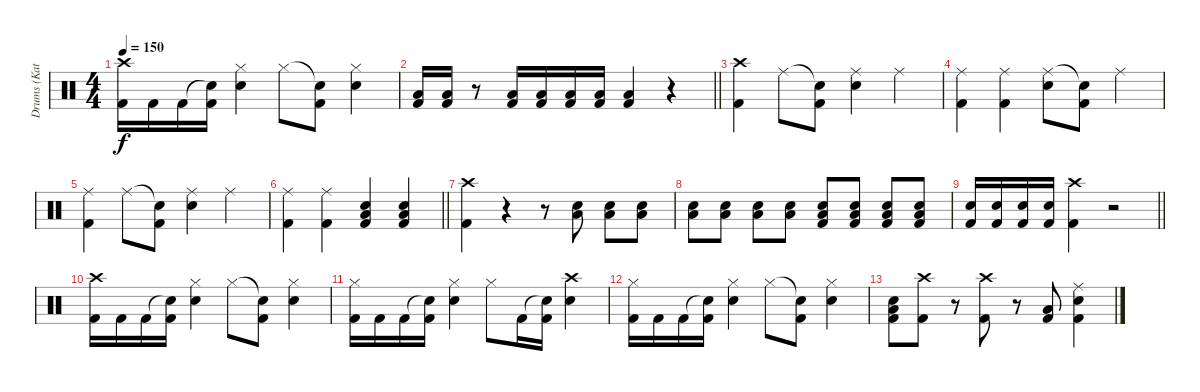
\track ("Drums (Katsuji)" "Drums (Kat") {instrument percussion}
\staff {score}
\articulation defaults
\ts (4 4)
\tempo 150
\clef neutral
\ks c
("Crash high (hit)" "Kick (hit) 2").16{dy f} "Kick (hit) 2".16 "Kick (hit) 2".16 ("Snare (hit)"{t} "Kick (hit) 2").16 ("Hi-Hat (closed)" "Snare (hit) 2").4 "Hi-Hat (closed)".8 ("Snare (hit)"{t} "Kick (hit) 2").8 ("Hi-Hat (closed)" "Snare (hit) 2").4 |
\barLineRight lightlight
("Low Tom (hit)" "Kick (hit) 2").16 ("Low Tom (hit)" "Kick (hit) 2").16 r.8 ("Low Tom (hit)" "Kick (hit) 2").16 ("Low Tom (hit)" "Kick (hit) 2").16 ("Low Tom (hit)" "Kick (hit) 2").16 ("Low Tom (hit)" "Kick (hit) 2").16 ("Low Tom (hit)" "Kick (hit) 2").4 r.4 |
("Crash high (hit)" "Kick (hit) 2").4 "Ride (middle)".8 ("Snare (hit)"{t} "Kick (hit) 2").8 ("Ride (middle)" "Snare (hit) 2").4 "Ride (middle)".4 |
("Ride (middle)" "Kick (hit) 2").4 ("Ride (middle)" "Kick (hit) 2").4 ("Ride (middle)" "Snare (hit) 2").8 ("Snare (hit)"{t} "Kick (hit) 2").8 "Ride (middle)".4 |
("Ride (middle)" "Kick (hit) 2").4 "Ride (middle)".8 ("Snare (hit)"{t} "Kick (hit) 2").8 ("Ride (middle)" "Snare (hit) 2").4 "Ride (middle)".4 |
\barLineRight lightlight
("Ride (middle)" "Kick (hit) 2").4 ("Ride (middle)" "Kick (hit) 2").4 ("Snare (hit) 2" "Low Tom (hit)" "Kick (hit) 2").4 ("Snare (hit) 2" "Low Tom (hit)" "Kick (hit) 2").4 |
("Crash high (hit)" "Kick (hit) 2").4 r.4 r.8 ("Snare (hit) 2" "Low Tom (hit)").8 ("Snare (hit) 2" "Low Tom (hit)").8 ("Snare (hit) 2" "Low Tom (hit)").8 |
("Snare (hit) 2" "Low Tom (hit)").8 ("Snare (hit) 2" "Low Tom (hit)").8 ("Snare (hit) 2" "Low Tom (hit)").8 ("Snare (hit) 2" "Low Tom (hit)").8 ("Snare (hit) 2" "Low Tom (hit)" "Kick (hit) 2").8 ("Snare (hit) 2" "Low Tom (hit)" "Kick (hit) 2").8 ("Snare (hit) 2" "Low Tom (hit)" "Kick (hit) 2").8 ("Snare (hit) 2" "Low Tom (hit)" "Kick (hit) 2").8 |
\barLineRight lightlight
("Snare (hit) 2" "Kick (hit) 2").16 ("Snare (hit) 2" "Kick (hit) 2").16 ("Snare (hit) 2" "Kick (hit) 2").16 ("Snare (hit) 2" "Kick (hit) 2").16 ("Crash high (hit)" "Kick (hit) 2").4 r.2 |
("Crash high (hit)" "Kick (hit) 2").16 "Kick (hit) 2".16 "Kick (hit) 2".16 ("Snare (hit)"{t} "Kick (hit) 2").16 ("Hi-Hat (closed)" "Snare (hit) 2").4 "Hi-Hat (closed)".8 ("Snare (hit)"{t} "Kick (hit) 2").8 ("Hi-Hat (closed)" "Snare (hit) 2").4 |
("Hi-Hat (closed)" "Kick (hit) 2").16 "Kick (hit) 2".16 "Kick (hit) 2".16 ("Snare (hit)"{t} "Kick (hit) 2").16 ("Hi-Hat (closed)" "Snare (hit) 2").4 "Hi-Hat (closed)".8 "Kick (hit) 2".16 ("Snare (hit)"{t} "Kick (hit) 2").16 ("Crash high (hit)" "Snare (hit) 2").4 |
("Hi-Hat (closed)" "Kick (hit) 2").16 "Kick (hit) 2".16 "Kick (hit) 2".16 ("Snare (hit)"{t} "Kick (hit) 2").16 ("Hi-Hat (closed)" "Snare (hit) 2").4 "Hi-Hat (closed)".8 ("Snare (hit)"{t} "Kick (hit) 2").8 ("Hi-Hat (closed)" "Snare (hit) 2").4 |
("Snare (hit) 2" "Low Tom (hit)" "Kick (hit) 2").8 ("Crash high (hit)" "Kick (hit) 2").8 r.8 ("Crash high (hit)" "Kick (hit) 2").8 r.8 ("Low Tom (hit)" "Kick (hit) 2").8 ("Ride (middle)" "Snare (hit) 2" "Kick (hit) 2").4
